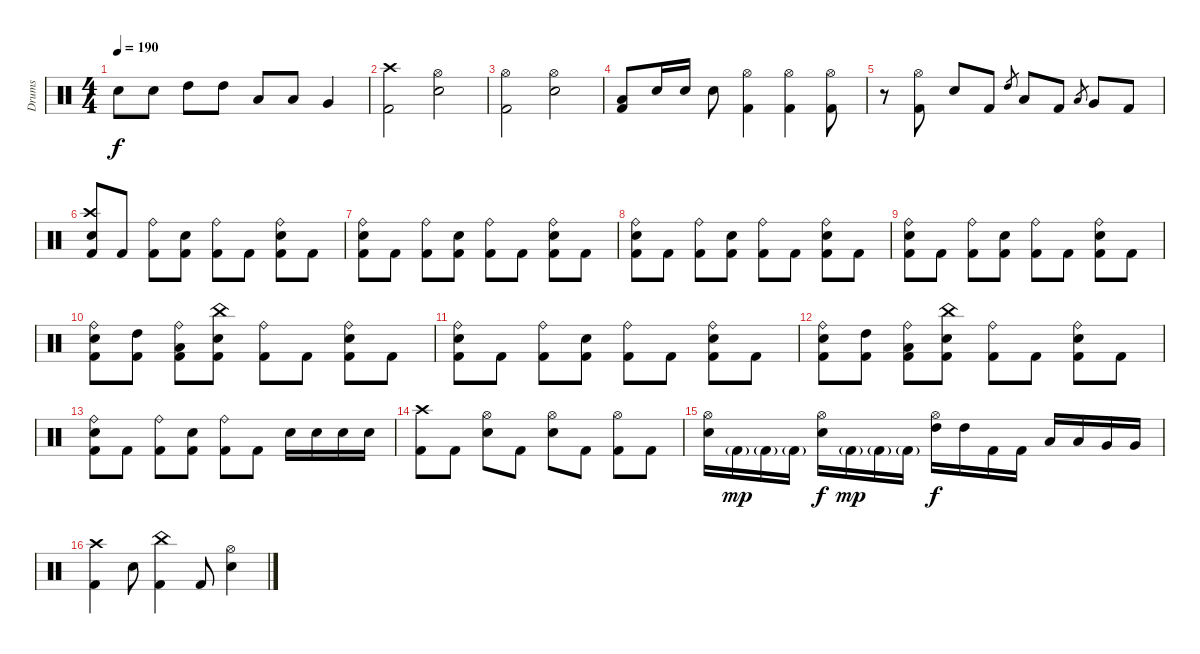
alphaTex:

\track ("Drums" "Drums") {instrument percussion}
\staff {score}
\articulation defaults
\ts (4 4)
\tempo 190
\clef neutral
\ks c "Snare (hit) 2".8{dy f} "Snare (hit) 2".8 "High Tom (hit)".8 "High Tom (hit)".8 "Low Tom (hit)".8 "Low Tom (hit)".8 "Very Low Tom (hit)".4
|
("Crash high (hit)" "Kick (hit) 2").2 ("Hi-Hat (open)" "Snare (hit) 2").2 |
("Hi-Hat (open)" "Kick (hit) 2").2 ("Hi-Hat (open)" "Snare (hit) 2").2 |
("Low Tom (hit)" "Kick (hit) 2").8 "Snare (hit) 2".16 "Snare (hit) 2".16 "Snare (hit) 2".8 ("Hi-Hat (open)" "Kick (hit) 2").4 ("Hi-Hat (open)" "Kick (hit) 2").4 ("Hi-Hat (open)" "Kick (hit) 2").8 |
r.8 ("Hi-Hat (open)" "Kick (hit) 2").8 "Snare (hit) 2".8 "Kick (hit) 2".8 "High Tom (hit)".8{gr} "Low Tom (hit)".8 "Kick (hit) 2".8 "Low Tom (hit)".8{gr} "Very Low Tom (hit)".8 "Kick (hit) 2".8 |
("Crash high (hit)" "Snare (hit) 2" "Kick (hit) 2").8 "Kick (hit) 2".8 ("Ride (bell)" "Kick (hit) 2").8 ("Snare (hit) 2" "Kick (hit) 2").8 ("Ride (bell)" "Kick (hit) 2").8 "Kick (hit) 2".8 ("Ride (bell)" "Snare (hit) 2" "Kick (hit) 2").8 "Kick (hit) 2".8 |
("Ride (bell)" "Snare (hit) 2" "Kick (hit) 2").8 "Kick (hit) 2".8 ("Ride (bell)" "Kick (hit) 2").8 ("Snare (hit) 2" "Kick (hit) 2").8 ("Ride (bell)" "Kick (hit) 2").8 "Kick (hit) 2".8 ("Ride (bell)" "Snare (hit) 2" "Kick (hit) 2").8 "Kick (hit) 2".8 |
("Ride (bell)" "Snare (hit) 2" "Kick (hit) 2").8 "Kick (hit) 2".8 ("Ride (bell)" "Kick (hit) 2").8 ("Snare (hit) 2" "Kick (hit) 2").8 ("Ride (bell)" "Kick (hit) 2").8 "Kick (hit) 2".8 ("Ride (bell)" "Snare (hit) 2" "Kick (hit) 2").8 "Kick (hit) 2".8 |
("Ride (bell)" "Snare (hit) 2" "Kick (hit) 2").8 "Kick (hit) 2".8 ("Ride (bell)" "Kick (hit) 2").8 ("Snare (hit) 2" "Kick (hit) 2").8 ("Ride (bell)" "Kick (hit) 2").8 "Kick (hit) 2".8 ("Ride (bell)" "Snare (hit) 2" "Kick (hit) 2").8 "Kick (hit) 2".8 |
("Ride (bell)" "Snare (hit) 2" "Kick (hit) 2").8 ("High Tom (hit)" "Kick (hit) 2").8 ("Ride (bell)" "Low Tom (hit)" "Kick (hit) 2").8 ("China (hit)" "Snare (hit) 2" "Kick (hit) 2").8 ("Ride (bell)" "Kick (hit) 2").8 "Kick (hit) 2".8 ("Ride (bell)" "Snare (hit) 2" "Kick (hit) 2").8 "Kick (hit) 2".8 |
("Ride (bell)" "Snare (hit) 2" "Kick (hit) 2").8 "Kick (hit) 2".8 ("Ride (bell)" "Kick (hit) 2").8 ("Snare (hit) 2" "Kick (hit) 2").8 ("Ride (bell)" "Kick (hit) 2").8 "Kick (hit) 2".8 ("Ride (bell)" "Snare (hit) 2" "Kick (hit) 2").8 "Kick (hit) 2".8 |
("Ride (bell)" "Snare (hit) 2" "Kick (hit) 2").8 ("High Tom (hit)" "Kick (hit) 2").8 ("Ride (bell)" "Low Tom (hit)" "Kick (hit) 2").8 ("China (hit)" "Snare (hit) 2" "Kick (hit) 2").8 ("Ride (bell)" "Kick (hit) 2").8 "Kick (hit) 2".8 ("Ride (bell)" "Snare (hit) 2" "Kick (hit) 2").8 "Kick (hit) 2".8 |
("Ride (bell)" "Snare (hit) 2" "Kick (hit) 2").8 "Kick (hit) 2".8 ("Ride (bell)" "Kick (hit) 2").8 ("Snare (hit) 2" "Kick (hit) 2").8 ("Ride (bell)" "Kick (hit) 2").8 "Kick (hit) 2".8 "Snare (hit) 2".16 "Snare (hit) 2".16 "Snare (hit) 2".16 "Snare (hit) 2".16 |
("Crash high (hit)" "Kick (hit) 2").8 "Kick (hit) 2".8 ("Hi-Hat (open)" "Snare (hit) 2").8 "Kick (hit) 2".8 ("Hi-Hat (open)" "Snare (hit) 2").8 "Kick (hit) 2".8 ("Hi-Hat (open)" "Kick (hit) 2").8 "Kick (hit) 2".8 |
("Hi-Hat (open)" "Snare (hit) 2").16 "Kick (hit) 2"{g}.16{dy mp} "Kick (hit) 2"{g}.16 "Kick (hit) 2"{g}.16 ("Hi-Hat (open)" "Snare (hit) 2").16{dy f} "Kick (hit) 2"{g}.16{dy mp} "Kick (hit) 2"{g}.16 "Kick (hit) 2"{g}.16 ("Hi-Hat (open)" "High Tom (hit)").16{dy f} "High Tom (hit)".16 "Kick (hit) 2".16 "Kick (hit) 2".16 "Low Tom (hit)".16 "Low Tom (hit)".16 "Very Low Tom (hit)".16 "Very Low Tom (hit)".16 |
("Crash high (hit)" "Kick (hit) 2").4 "Snare (hit) 2".8 ("China (hit)" "Kick (hit) 2").4 "Kick (hit) 2".8 ("Hi-Hat (open)" "Snare (hit) 2").4
